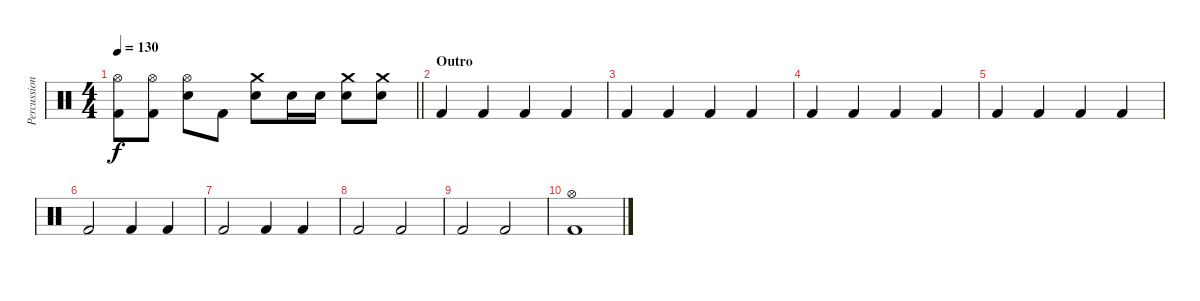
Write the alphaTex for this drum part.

\track ("Percussion" "Percussion") {instrument percussion}
\staff {score}
\articulation defaults
\ts (4 4)
\tempo 130
\clef neutral
\barLineRight lightlight
\ks c
("Hi-Hat (open)" "Kick (hit) 2").8{dy f} ("Hi-Hat (open)" "Kick (hit) 2").8 ("Hi-Hat (open)" "Electric Snare (hit)").8 "Kick (hit) 2".8 ("Crash medium (hit)" "Electric Snare (hit)").8 "Electric Snare (hit)".16 "Electric Snare (hit)".16 ("Crash medium (hit)" "Electric Snare (hit)").8 ("Crash medium (hit)" "Electric Snare (hit)").8 |
\section ("" "Outro")
"Kick (hit) 2".4 "Kick (hit) 2".4 "Kick (hit) 2".4 "Kick (hit) 2".4 |
"Kick (hit) 2".4 "Kick (hit) 2".4 "Kick (hit) 2".4 "Kick (hit) 2".4 |
"Kick (hit) 2".4 "Kick (hit) 2".4 "Kick (hit) 2".4 "Kick (hit) 2".4 |
"Kick (hit) 2".4 "Kick (hit) 2".4 "Kick (hit) 2".4 "Kick (hit) 2".4 |
"Kick (hit) 2".2 "Kick (hit) 2".4 "Kick (hit) 2".4 |
"Kick (hit) 2".2 "Kick (hit) 2".4 "Kick (hit) 2".4 |
"Kick (hit) 2".2 "Kick (hit) 2".2 |
"Kick (hit) 2".2 "Kick (hit) 2".2 |
("Hi-Hat (open)" "Kick (hit) 2").1
